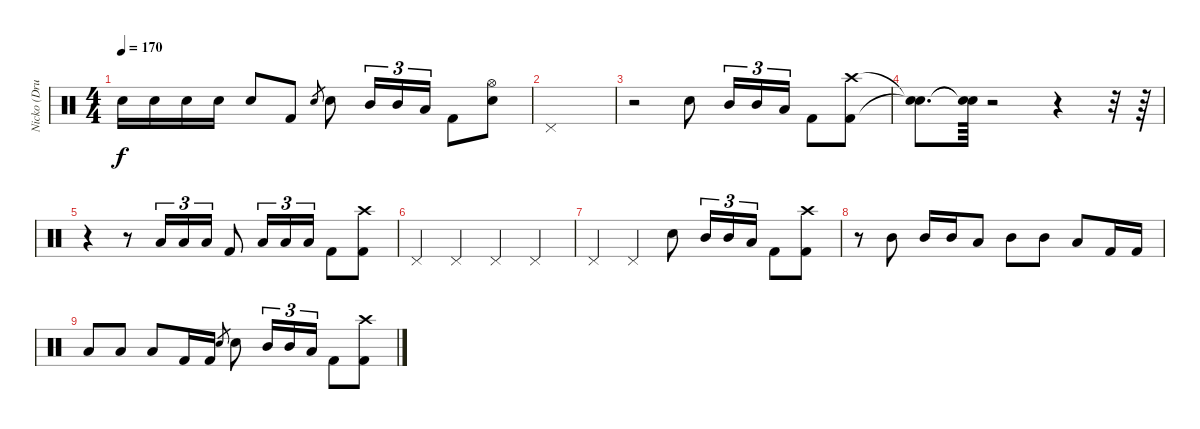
\track ("Nicko (Drums)" "Nicko (Dru") {instrument percussion}
\staff {score}
\articulation defaults
\ts (4 4)
\tempo 170
\clef neutral
\ks c "Snare (hit) 2".16{dy f} "Snare (hit) 2".16 "Snare (hit) 2".16 "Snare (hit) 2".16 "Snare (hit) 2".8 "Kick (hit) 2".8 "Snare (hit) 2".8{gr} "Snare (hit) 2".8 "Mid Tom (hit)".16{tu (3 2)} "Mid Tom (hit)".16{tu (3 2)} "Low Tom (hit)".16{tu (3 2)} "Kick (hit) 2".8
("Hi-Hat (open)" "Snare (hit) 2").8 |
"Pedal Hi-Hat (hit)".1 |
r.2 "Snare (hit) 2".8 "Mid Tom (hit)".16{tu (3 2)} "Mid Tom (hit)".16{tu (3 2)} "Low Tom (hit)".16{tu (3 2)} "Kick (hit) 2".8 ("Kick (hit) 2" "Crash high (hit)").8 |
("Snare (hit)"{t} "Snare (hit)"{t}).8{d} ("Snare (hit)"{t} "Snare (hit)"{t}).64 r.2 r.4 r.32 r.64 |
r.4 r.8 "Low Floor Tom (hit)".16{tu (3 2)} "Low Tom (hit)".16{tu (3 2)} "Low Floor Tom (hit)".16{tu (3 2)} "Kick (hit) 2".8 "Low Floor Tom (hit)".16{tu (3 2)} "Low Tom (hit)".16{tu (3 2)} "Low Floor Tom (hit)".16{tu (3 2)} "Kick (hit) 2".8 ("Kick (hit) 2" "Crash high (hit)").8 |
"Pedal Hi-Hat (hit)".4 "Pedal Hi-Hat (hit)".4 "Pedal Hi-Hat (hit)".4 "Pedal Hi-Hat (hit)".4 |
"Pedal Hi-Hat (hit)".4 "Pedal Hi-Hat (hit)".4 "Snare (hit) 2".8 "Mid Tom (hit)".16{tu (3 2)} "Mid Tom (hit)".16{tu (3 2)} "Low Tom (hit)".16{tu (3 2)} "Kick (hit) 2".8 ("Kick (hit) 2" "Crash high (hit)").8 |
r.8 "Mid Tom (hit)".8 "Mid Tom (hit)".16 "Mid Tom (hit)".16 "Low Tom (hit)".8 "Mid Tom (hit)".8 "Mid Tom (hit)".8 "Low Tom (hit)".8 "Kick (hit) 2".16 "Kick (hit) 2".16 |
"Low Tom (hit)".8 "Low Tom (hit)".8 "Low Floor Tom (hit)".8 "Kick (hit) 2".16 "Kick (hit) 2".16 "Snare (hit) 2".8{gr} "Snare (hit) 2".8 "Mid Tom (hit)".16{tu (3 2)} "Mid Tom (hit)".16{tu (3 2)} "Low Tom (hit)".16{tu (3 2)} "Kick (hit) 2".8 ("Kick (hit) 2" "Crash high (hit)").8
